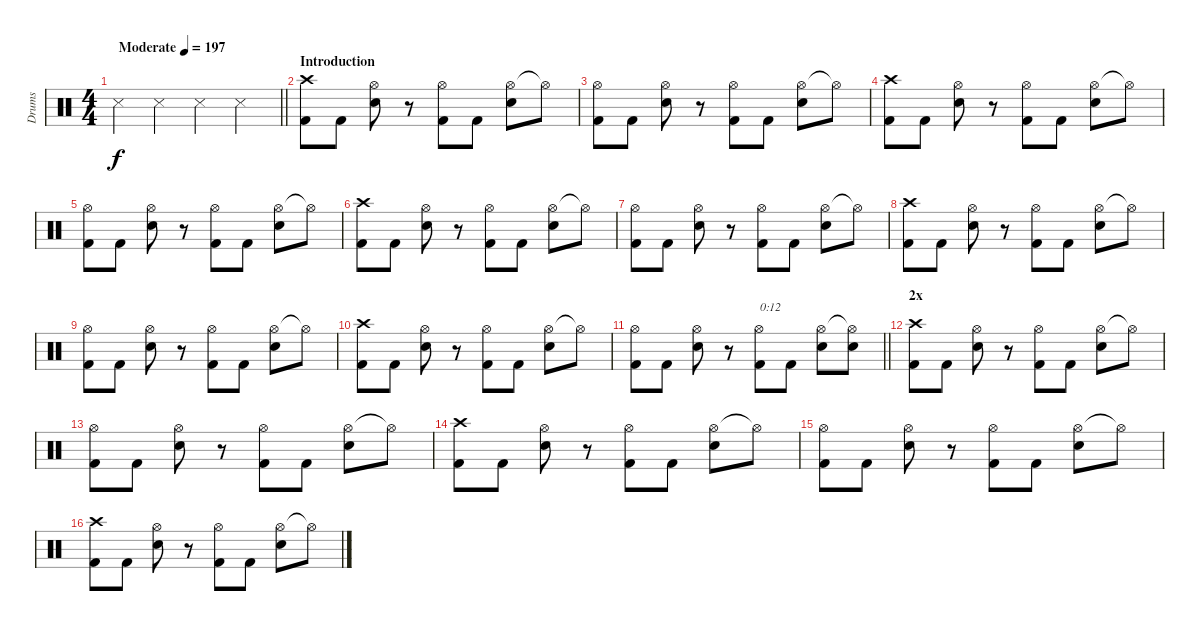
\track ("Drums" "Drums") {instrument percussion}
\staff {score}
\articulation defaults
\ts (4 4)
\tempo (197 "Moderate")
\clef neutral
\barLineRight lightlight
\ks c "Snare (side stick) 3".4{dy f} "Snare (side stick) 3".4 "Snare (side stick) 3".4 "Snare (side stick) 3".4
|
\section ("" "Introduction")
("Crash high (hit)" "Kick (hit) 2").8 "Kick (hit) 2".8 ("Hi-Hat (open)" "Snare (hit) 2").8 r.8 ("Hi-Hat (open)" "Kick (hit) 2").8 "Kick (hit) 2".8 ("Hi-Hat (open)" "Snare (hit) 2").8 "Hi-Hat (open)"{t}.8 |
("Hi-Hat (open)" "Kick (hit) 2").8 "Kick (hit) 2".8 ("Hi-Hat (open)" "Snare (hit) 2").8 r.8 ("Hi-Hat (open)" "Kick (hit) 2").8 "Kick (hit) 2".8 ("Hi-Hat (open)" "Snare (hit) 2").8 "Hi-Hat (open)"{t}.8 |
("Crash high (hit)" "Kick (hit) 2").8 "Kick (hit) 2".8 ("Hi-Hat (open)" "Snare (hit) 2").8 r.8 ("Hi-Hat (open)" "Kick (hit) 2").8 "Kick (hit) 2".8 ("Hi-Hat (open)" "Snare (hit) 2").8 "Hi-Hat (open)"{t}.8 |
("Hi-Hat (open)" "Kick (hit) 2").8 "Kick (hit) 2".8 ("Hi-Hat (open)" "Snare (hit) 2").8 r.8 ("Hi-Hat (open)" "Kick (hit) 2").8 "Kick (hit) 2".8 ("Hi-Hat (open)" "Snare (hit) 2").8 "Hi-Hat (open)"{t}.8 |
("Crash high (hit)" "Kick (hit) 2").8 "Kick (hit) 2".8 ("Hi-Hat (open)" "Snare (hit) 2").8 r.8 ("Hi-Hat (open)" "Kick (hit) 2").8 "Kick (hit) 2".8 ("Hi-Hat (open)" "Snare (hit) 2").8 "Hi-Hat (open)"{t}.8 |
("Hi-Hat (open)" "Kick (hit) 2").8 "Kick (hit) 2".8 ("Hi-Hat (open)" "Snare (hit) 2").8 r.8 ("Hi-Hat (open)" "Kick (hit) 2").8 "Kick (hit) 2".8 ("Hi-Hat (open)" "Snare (hit) 2").8 "Hi-Hat (open)"{t}.8 |
("Crash high (hit)" "Kick (hit) 2").8 "Kick (hit) 2".8 ("Hi-Hat (open)" "Snare (hit) 2").8 r.8 ("Hi-Hat (open)" "Kick (hit) 2").8 "Kick (hit) 2".8 ("Hi-Hat (open)" "Snare (hit) 2").8 "Hi-Hat (open)"{t}.8 |
("Hi-Hat (open)" "Kick (hit) 2").8 "Kick (hit) 2".8 ("Hi-Hat (open)" "Snare (hit) 2").8 r.8 ("Hi-Hat (open)" "Kick (hit) 2").8 "Kick (hit) 2".8 ("Hi-Hat (open)" "Snare (hit) 2").8 "Hi-Hat (open)"{t}.8 |
("Crash high (hit)" "Kick (hit) 2").8 "Kick (hit) 2".8 ("Hi-Hat (open)" "Snare (hit) 2").8 r.8 ("Hi-Hat (open)" "Kick (hit) 2").8 "Kick (hit) 2".8 ("Hi-Hat (open)" "Snare (hit) 2").8 "Hi-Hat (open)"{t}.8 |
\barLineRight lightlight
("Hi-Hat (open)" "Kick (hit) 2").8 "Kick (hit) 2".8 ("Hi-Hat (open)" "Snare (hit) 2").8 r.8 ("Hi-Hat (open)" "Kick (hit) 2").8{txt "0:12"} "Kick (hit) 2".8 ("Hi-Hat (open)" "Snare (hit) 2").8 ("Hi-Hat (open)"{t} "Snare (hit) 2").8 |
\section ("" "2x")
("Crash high (hit)" "Kick (hit) 2").8 "Kick (hit) 2".8 ("Hi-Hat (open)" "Snare (hit) 2").8 r.8 ("Hi-Hat (open)" "Kick (hit) 2").8 "Kick (hit) 2".8 ("Hi-Hat (open)" "Snare (hit) 2").8 "Hi-Hat (open)"{t}.8 |
("Hi-Hat (open)" "Kick (hit) 2").8 "Kick (hit) 2".8 ("Hi-Hat (open)" "Snare (hit) 2").8 r.8 ("Hi-Hat (open)" "Kick (hit) 2").8 "Kick (hit) 2".8 ("Hi-Hat (open)" "Snare (hit) 2").8 "Hi-Hat (open)"{t}.8 |
("Crash high (hit)" "Kick (hit) 2").8 "Kick (hit) 2".8 ("Hi-Hat (open)" "Snare (hit) 2").8 r.8 ("Hi-Hat (open)" "Kick (hit) 2").8 "Kick (hit) 2".8 ("Hi-Hat (open)" "Snare (hit) 2").8 "Hi-Hat (open)"{t}.8 |
("Hi-Hat (open)" "Kick (hit) 2").8 "Kick (hit) 2".8 ("Hi-Hat (open)" "Snare (hit) 2").8 r.8 ("Hi-Hat (open)" "Kick (hit) 2").8 "Kick (hit) 2".8 ("Hi-Hat (open)" "Snare (hit) 2").8 "Hi-Hat (open)"{t}.8 |
("Crash high (hit)" "Kick (hit) 2").8 "Kick (hit) 2".8 ("Hi-Hat (open)" "Snare (hit) 2").8 r.8 ("Hi-Hat (open)" "Kick (hit) 2").8 "Kick (hit) 2".8 ("Hi-Hat (open)" "Snare (hit) 2").8 "Hi-Hat (open)"{t}.8
